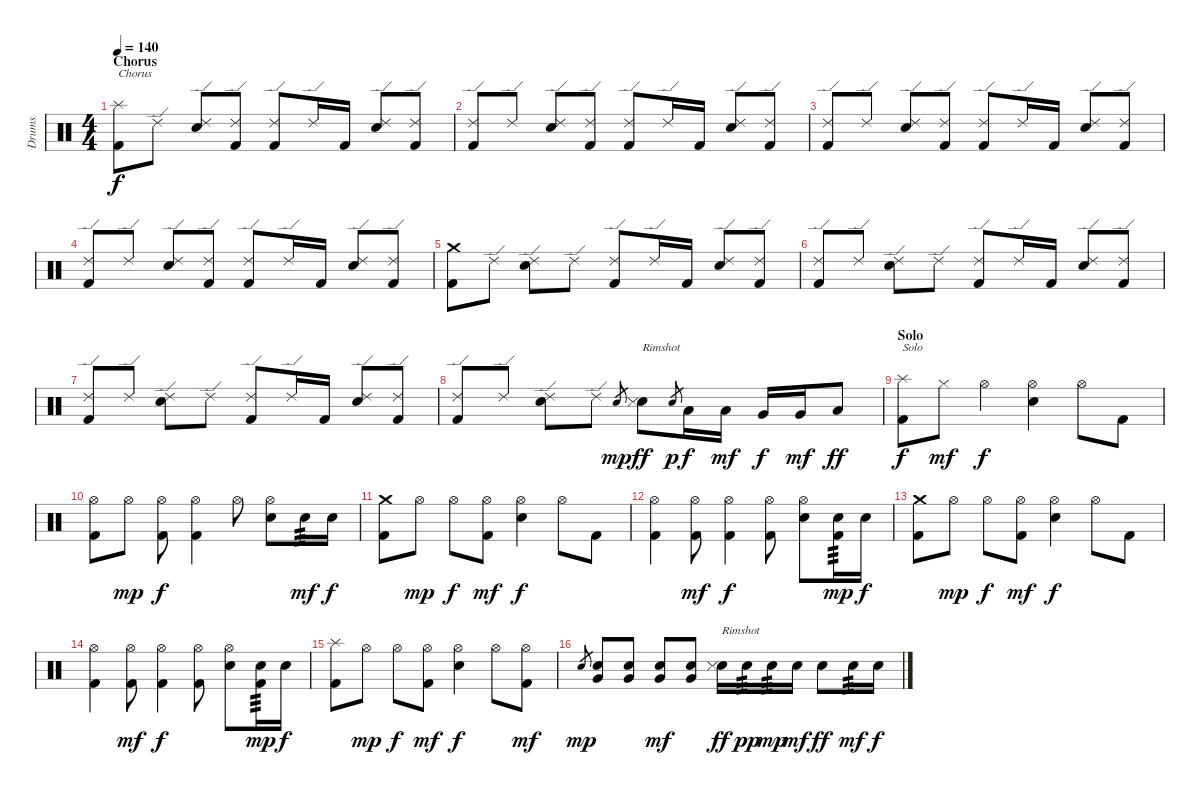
\track ("Drums" "Drums") {instrument percussion}
\staff {score}
\articulation defaults
\ts (4 4)
\section ("" "Chorus")
\tempo 140
\clef neutral
\ks c
("Splash (hit)" "Kick (hit) 2").8{txt "Chorus" dy f} "Ride (edge) 2".8 ("Ride (edge) 2" "Snare (hit) 2").8 ("Ride (edge) 2" "Kick (hit) 2").8 ("Ride (edge) 2" "Kick (hit) 2").8 "Ride (edge) 2".16 "Kick (hit) 2".16 ("Ride (edge) 2" "Snare (hit) 2").8 ("Ride (edge) 2" "Kick (hit) 2").8 |
("Ride (edge) 2" "Kick (hit) 2").8 "Ride (edge) 2".8 ("Ride (edge) 2" "Snare (hit) 2").8 ("Ride (edge) 2" "Kick (hit) 2").8 ("Ride (edge) 2" "Kick (hit) 2").8 "Ride (edge) 2".16 "Kick (hit) 2".16 ("Ride (edge) 2" "Snare (hit) 2").8 ("Ride (edge) 2" "Kick (hit) 2").8 |
("Ride (edge) 2" "Kick (hit) 2").8 "Ride (edge) 2".8 ("Ride (edge) 2" "Snare (hit) 2").8 ("Ride (edge) 2" "Kick (hit) 2").8 ("Ride (edge) 2" "Kick (hit) 2").8 "Ride (edge) 2".16 "Kick (hit) 2".16 ("Ride (edge) 2" "Snare (hit) 2").8 ("Ride (edge) 2" "Kick (hit) 2").8 |
("Ride (edge) 2" "Kick (hit) 2").8 "Ride (edge) 2".8 ("Ride (edge) 2" "Snare (hit) 2").8 ("Ride (edge) 2" "Kick (hit) 2").8 ("Ride (edge) 2" "Kick (hit) 2").8 "Ride (edge) 2".16 "Kick (hit) 2".16 ("Ride (edge) 2" "Snare (hit) 2").8 ("Ride (edge) 2" "Kick (hit) 2").8 |
("Crash medium (hit)" "Kick (hit) 2").8 "Ride (edge) 2".8 ("Ride (edge) 2" "Snare (hit) 2").8 "Ride (edge) 2".8 ("Ride (edge) 2" "Kick (hit) 2").8 "Ride (edge) 2".16 "Kick (hit) 2".16 ("Ride (edge) 2" "Snare (hit) 2").8 ("Ride (edge) 2" "Kick (hit) 2").8 |
("Ride (edge) 2" "Kick (hit) 2").8 "Ride (edge) 2".8 ("Ride (edge) 2" "Snare (hit) 2").8 "Ride (edge) 2".8 ("Ride (edge) 2" "Kick (hit) 2").8 "Ride (edge) 2".16 "Kick (hit) 2".16 ("Ride (edge) 2" "Snare (hit) 2").8 ("Ride (edge) 2" "Kick (hit) 2").8 |
("Ride (edge) 2" "Kick (hit) 2").8 "Ride (edge) 2".8 ("Ride (edge) 2" "Snare (hit) 2").8 "Ride (edge) 2".8 ("Ride (edge) 2" "Kick (hit) 2").8 "Ride (edge) 2".16 "Kick (hit) 2".16 ("Ride (edge) 2" "Snare (hit) 2").8 ("Ride (edge) 2" "Kick (hit) 2").8 |
("Ride (edge) 2" "Kick (hit) 2").8 "Ride (edge) 2".8 ("Ride (edge) 2" "Snare (hit) 2").8 "Ride (edge) 2".8 "Snare (hit) 2".8{gr dy mp} ("Snare (hit) 2" "Snare (side stick) 3").8{txt "Rimshot" dy ff} "Snare (hit) 2".8{gr dy p} "Low Tom (hit)".16{dy f} "Low Tom (hit)".16{dy mf} "Very Low Tom (hit)".16{dy f} "Very Low Tom (hit)".16{dy mf} "Low Floor Tom (hit)".8{dy ff} |
\section ("" "Solo")
("Splash (hit)" "Kick (hit) 2").8{txt "Solo" dy f} "Hi-Hat (closed)".8{dy mf} "Hi-Hat (open)".4{dy f} ("Hi-Hat (open)" "Snare (hit) 2").4 "Hi-Hat (open)".8 "Kick (hit) 2".8 |
("Hi-Hat (open)" "Kick (hit) 2").8 "Hi-Hat (open)".8{dy mp} ("Hi-Hat (open)" "Kick (hit) 2").8{dy f} ("Hi-Hat (open)" "Kick (hit) 2").4 "Hi-Hat (open)".8 ("Hi-Hat (open)" "Snare (hit) 2").8 "Snare (hit) 2".16{tp 3 dy mf} "Snare (hit) 2".16{dy f} |
("Crash medium (hit)" "Kick (hit) 2").8 "Hi-Hat (open)".8{dy mp} "Hi-Hat (open)".8{dy f} ("Hi-Hat (open)" "Kick (hit) 2").8{dy mf} ("Hi-Hat (open)" "Snare (hit) 2").4{dy f} "Hi-Hat (open)".8 "Kick (hit) 2".8 |
("Hi-Hat (open)" "Kick (hit) 2").4 ("Hi-Hat (open)" "Kick (hit) 2").8{dy mf} ("Hi-Hat (open)" "Kick (hit) 2").4{dy f} ("Hi-Hat (open)" "Kick (hit) 2").8 ("Hi-Hat (open)" "Snare (hit) 2").8 ("Snare (hit) 2" "Kick (hit) 2").16{tp 3 dy mp} "Snare (hit) 2".16{dy f} |
("Crash medium (hit)" "Kick (hit) 2").8 "Hi-Hat (open)".8{dy mp} "Hi-Hat (open)".8{dy f} ("Hi-Hat (open)" "Kick (hit) 2").8{dy mf} ("Hi-Hat (open)" "Snare (hit) 2").4{dy f} "Hi-Hat (open)".8 "Kick (hit) 2".8 |
("Hi-Hat (open)" "Kick (hit) 2").4 ("Hi-Hat (open)" "Kick (hit) 2").8{dy mf} ("Hi-Hat (open)" "Kick (hit) 2").4{dy f} ("Hi-Hat (open)" "Kick (hit) 2").8 ("Hi-Hat (open)" "Snare (hit) 2").8 ("Snare (hit) 2" "Kick (hit) 2").16{tp 3 dy mp} "Snare (hit) 2".16{dy f} |
("Splash (hit)" "Kick (hit) 2").8 "Hi-Hat (open)".8{dy mp} "Hi-Hat (open)".8{dy f} ("Hi-Hat (open)" "Kick (hit) 2").8{dy mf} ("Hi-Hat (open)" "Snare (hit) 2").4{dy f} "Hi-Hat (open)".8 ("Hi-Hat (open)" "Kick (hit) 2").8{dy mf} |
"Snare (hit) 2".8{gr dy mp} ("Very Low Tom (hit)" "Snare (hit) 2").8 ("Very Low Tom (hit)" "Snare (hit) 2").8 ("Very Low Tom (hit)" "Snare (hit) 2").8{dy mf} ("Very Low Tom (hit)" "Snare (hit) 2").8 ("Snare (hit) 2" "Snare (side stick) 3").16{txt "Rimshot" dy ff} "Snare (hit) 2".16{tp 3 dy pp} "Snare (hit) 2".16{tp 3 dy mp} "Snare (hit) 2".16{dy mf} "Snare (hit) 2".8{dy ff} "Snare (hit) 2".16{tp 3 dy mf} "Snare (hit) 2".16{dy f}
